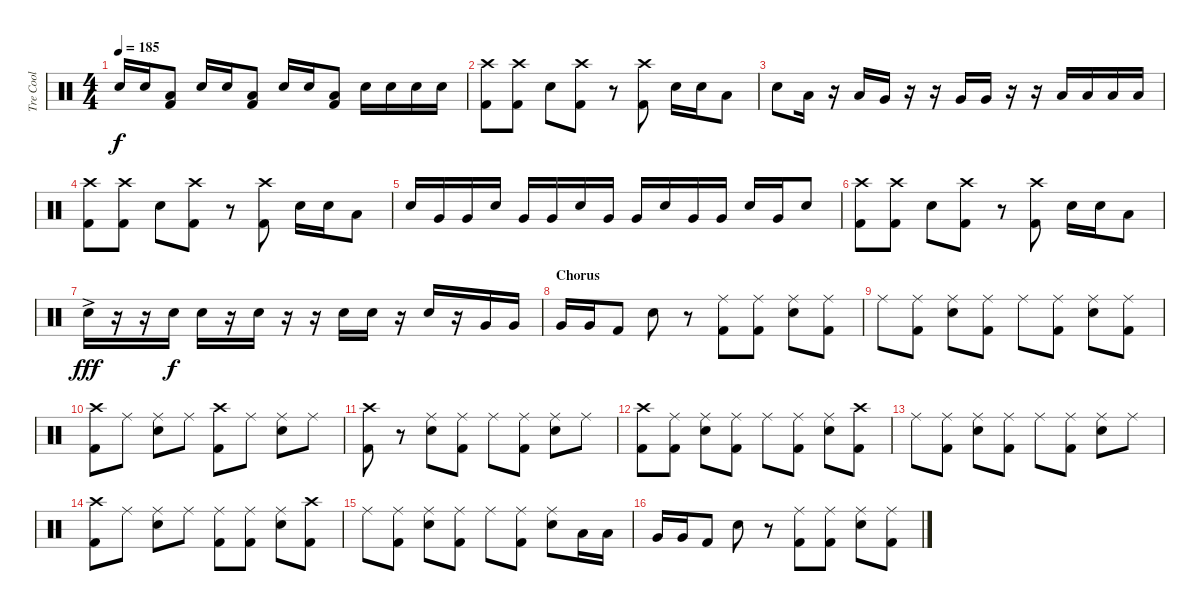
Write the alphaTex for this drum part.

\track ("Tre Cool" "Tre Cool") {instrument percussion}
\staff {score}
\articulation defaults
\ts (4 4)
\tempo 185
\clef neutral
\ks c "Electric Snare (hit)".16{dy f} "Electric Snare (hit)".16
("Low Tom (hit)" "Kick (hit) 2").8 "Electric Snare (hit)".16 "Electric Snare (hit)".16 ("Low Tom (hit)" "Kick (hit) 2").8 "Electric Snare (hit)".16 "Electric Snare (hit)".16 ("Low Tom (hit)" "Kick (hit) 2").8 "Electric Snare (hit)".16 "Electric Snare (hit)".16 "Electric Snare (hit)".16 "Electric Snare (hit)".16 |
("Crash high (hit)" "Kick (hit) 2").8 ("Crash high (hit)" "Kick (hit) 2").8 "Electric Snare (hit)".8 ("Crash high (hit)" "Kick (hit) 2").8 r.8 ("Crash high (hit)" "Kick (hit) 2").8 "Electric Snare (hit)".16 "Electric Snare (hit)".16 "Low Tom (hit)".8 |
"Electric Snare (hit)".8 "Low Tom (hit)".16 r.16 "Low Tom (hit)".16 "Very Low Tom (hit)".16 r.16 r.16 "Very Low Tom (hit)".16 "Very Low Tom (hit)".16 r.16 r.16 "Low Floor Tom (hit)".16 "Low Floor Tom (hit)".16 "Low Floor Tom (hit)".16 "Low Floor Tom (hit)".16 |
("Crash high (hit)" "Kick (hit) 2").8 ("Crash high (hit)" "Kick (hit) 2").8 "Electric Snare (hit)".8 ("Crash high (hit)" "Kick (hit) 2").8 r.8 ("Crash high (hit)" "Kick (hit) 2").8 "Electric Snare (hit)".16 "Electric Snare (hit)".16 "Low Tom (hit)".8 |
"Electric Snare (hit)".16 "Very Low Tom (hit)".16 "Very Low Tom (hit)".16 "Electric Snare (hit)".16 "Very Low Tom (hit)".16 "Very Low Tom (hit)".16 "Electric Snare (hit)".16 "Very Low Tom (hit)".16 "Very Low Tom (hit)".16 "Electric Snare (hit)".16 "Very Low Tom (hit)".16 "Very Low Tom (hit)".16 "Electric Snare (hit)".16 "Very Low Tom (hit)".16 "Electric Snare (hit)".8 |
("Crash high (hit)" "Kick (hit) 2").8 ("Crash high (hit)" "Kick (hit) 2").8 "Electric Snare (hit)".8 ("Crash high (hit)" "Kick (hit) 2").8 r.8 ("Crash high (hit)" "Kick (hit) 2").8 "Electric Snare (hit)".16 "Electric Snare (hit)".16 "Low Tom (hit)".8 |
"Electric Snare (hit)"{ac}.16{dy fff} r.16 r.16 "Electric Snare (hit)".16{dy f} "Electric Snare (hit)".16 r.16 "Electric Snare (hit)".16 r.16 r.16 "Electric Snare (hit)".16 "Electric Snare (hit)".16 r.16 "Electric Snare (hit)".16 r.16 "Very Low Tom (hit)".16 "Very Low Tom (hit)".16 |
\section ("" "Chorus")
"Very Low Tom (hit)".16 "Very Low Tom (hit)".16 "Kick (hit) 2".8 "Electric Snare (hit)".8 r.8 ("Ride (middle)" "Kick (hit) 2").8 ("Ride (middle)" "Kick (hit) 2").8 ("Ride (middle)" "Electric Snare (hit)").8 ("Ride (middle)" "Kick (hit) 2").8 |
"Ride (middle)".8 ("Ride (middle)" "Kick (hit) 2").8 ("Ride (middle)" "Electric Snare (hit)").8 ("Ride (middle)" "Kick (hit) 2").8 "Ride (middle)".8 ("Ride (middle)" "Kick (hit) 2").8 ("Ride (middle)" "Electric Snare (hit)").8 ("Ride (middle)" "Kick (hit) 2").8 |
("Crash high (hit)" "Kick (hit) 2").8 "Ride (middle)".8 ("Ride (middle)" "Electric Snare (hit)").8 "Ride (middle)".8 ("Crash high (hit)" "Kick (hit) 2").8 "Ride (middle)".8 ("Ride (middle)" "Electric Snare (hit)").8 "Ride (middle)".8 |
("Crash high (hit)" "Kick (hit) 2").8 r.8 ("Ride (middle)" "Electric Snare (hit)").8 ("Ride (middle)" "Kick (hit) 2").8 "Ride (middle)".8 ("Ride (middle)" "Kick (hit) 2").8 ("Ride (middle)" "Electric Snare (hit)").8 "Ride (middle)".8 |
("Crash high (hit)" "Kick (hit) 2").8 ("Ride (middle)" "Kick (hit) 2").8 ("Ride (middle)" "Electric Snare (hit)").8 ("Ride (middle)" "Kick (hit) 2").8 "Ride (middle)".8 ("Ride (middle)" "Kick (hit) 2").8 ("Ride (middle)" "Electric Snare (hit)").8 ("Crash high (hit)" "Kick (hit) 2").8 |
"Ride (middle)".8 ("Ride (middle)" "Kick (hit) 2").8 ("Ride (middle)" "Electric Snare (hit)").8 ("Ride (middle)" "Kick (hit) 2").8 "Ride (middle)".8 ("Ride (middle)" "Kick (hit) 2").8 ("Ride (middle)" "Electric Snare (hit)").8 "Ride (middle)".8 |
("Crash high (hit)" "Kick (hit) 2").8 "Ride (middle)".8 ("Ride (middle)" "Electric Snare (hit)").8 "Ride (middle)".8 ("Ride (middle)" "Kick (hit) 2").8 ("Ride (middle)" "Kick (hit) 2").8 ("Ride (middle)" "Electric Snare (hit)").8 ("Crash high (hit)" "Kick (hit) 2").8 |
"Ride (middle)".8 ("Ride (middle)" "Kick (hit) 2").8 ("Ride (middle)" "Electric Snare (hit)").8 ("Ride (middle)" "Kick (hit) 2").8 "Ride (middle)".8 ("Ride (middle)" "Kick (hit) 2").8 ("Ride (middle)" "Electric Snare (hit)").8 "Low Tom (hit)".16 "Low Tom (hit)".16 |
"Very Low Tom (hit)".16 "Very Low Tom (hit)".16 "Kick (hit) 2".8 "Electric Snare (hit)".8 r.8 ("Ride (middle)" "Kick (hit) 2").8 ("Ride (middle)" "Kick (hit) 2").8 ("Ride (middle)" "Electric Snare (hit)").8 ("Ride (middle)" "Kick (hit) 2").8
